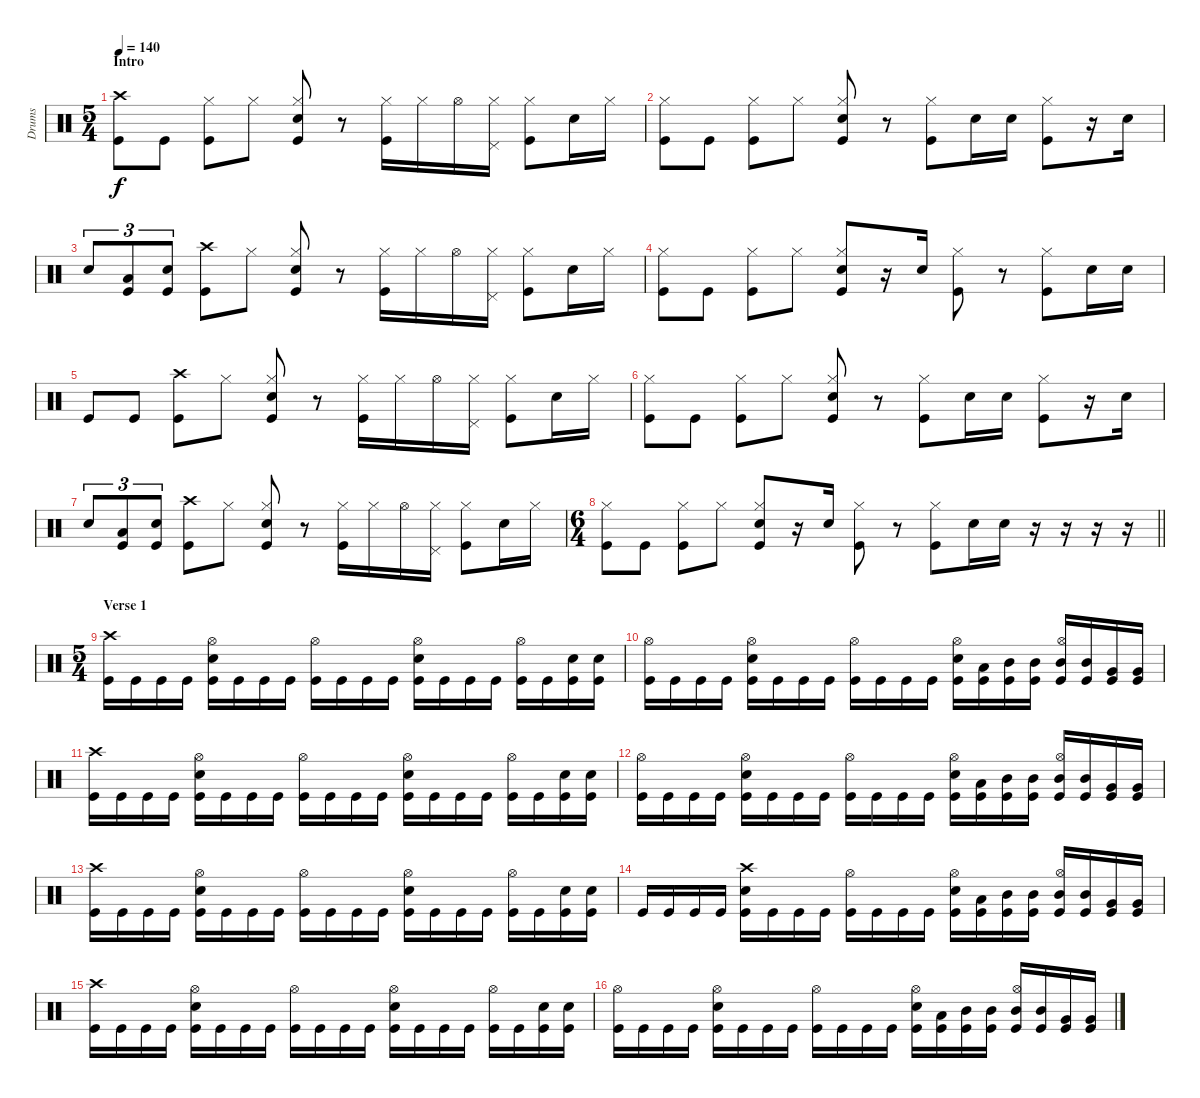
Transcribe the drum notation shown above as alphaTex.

\track ("Drums" "Drums") {instrument percussion}
\staff {score}
\articulation defaults
\ts (5 4)
\section ("" "Intro")
\tempo 140
\clef neutral
\ks c
("Crash high (hit)" "Kick (hit)").8{dy f} "Kick (hit)".8 ("Hi-Hat (closed)" "Kick (hit)").8 "Hi-Hat (closed)".8 ("Hi-Hat (closed)" "Snare (hit) 2" "Kick (hit)").8 r.8 ("Hi-Hat (closed)" "Kick (hit)").16 "Hi-Hat (closed)".16 "Hi-Hat (open)".16 ("Hi-Hat (closed)" "Pedal Hi-Hat (hit)").16 ("Hi-Hat (closed)" "Kick (hit)").8 "Snare (hit) 2".16 "Hi-Hat (closed)".16 |
("Hi-Hat (closed)" "Kick (hit)").8 "Kick (hit)".8 ("Hi-Hat (closed)" "Kick (hit)").8 "Hi-Hat (closed)".8 ("Hi-Hat (closed)" "Snare (hit) 2" "Kick (hit)").8 r.8 ("Hi-Hat (closed)" "Kick (hit)").8 "Snare (hit) 2".16 "Snare (hit) 2".16 ("Hi-Hat (closed)" "Kick (hit)").8 r.16 "Snare (hit) 2".16 |
"Snare (hit) 2".8{tu (3 2)} ("Low Tom (hit)" "Kick (hit)").8{tu (3 2)} ("Snare (hit) 2" "Kick (hit)").8{tu (3 2)} ("Crash high (hit)" "Kick (hit)").8 "Hi-Hat (closed)".8 ("Hi-Hat (closed)" "Snare (hit) 2" "Kick (hit)").8 r.8 ("Hi-Hat (closed)" "Kick (hit)").16 "Hi-Hat (closed)".16 "Hi-Hat (open)".16 ("Hi-Hat (closed)" "Pedal Hi-Hat (hit)").16 ("Hi-Hat (closed)" "Kick (hit)").8 "Snare (hit) 2".16 "Hi-Hat (closed)".16 |
("Hi-Hat (closed)" "Kick (hit)").8 "Kick (hit)".8 ("Hi-Hat (closed)" "Kick (hit)").8 "Hi-Hat (closed)".8 ("Hi-Hat (closed)" "Snare (hit) 2" "Kick (hit)").8 r.16 "Snare (hit) 2".16 ("Hi-Hat (closed)" "Kick (hit)").8 r.8 ("Hi-Hat (closed)" "Kick (hit)").8 "Snare (hit) 2".16 "Snare (hit) 2".16 |
"Kick (hit)".8 "Kick (hit)".8 ("Crash high (hit)" "Kick (hit)").8 "Hi-Hat (closed)".8 ("Hi-Hat (closed)" "Snare (hit) 2" "Kick (hit)").8 r.8 ("Hi-Hat (closed)" "Kick (hit)").16 "Hi-Hat (closed)".16 "Hi-Hat (open)".16 ("Hi-Hat (closed)" "Pedal Hi-Hat (hit)").16 ("Hi-Hat (closed)" "Kick (hit)").8 "Snare (hit) 2".16 "Hi-Hat (closed)".16 |
("Hi-Hat (closed)" "Kick (hit)").8 "Kick (hit)".8 ("Hi-Hat (closed)" "Kick (hit)").8 "Hi-Hat (closed)".8 ("Hi-Hat (closed)" "Snare (hit) 2" "Kick (hit)").8 r.8 ("Hi-Hat (closed)" "Kick (hit)").8 "Snare (hit) 2".16 "Snare (hit) 2".16 ("Hi-Hat (closed)" "Kick (hit)").8 r.16 "Snare (hit) 2".16 |
"Snare (hit) 2".8{tu (3 2)} ("Low Tom (hit)" "Kick (hit)").8{tu (3 2)} ("Snare (hit) 2" "Kick (hit)").8{tu (3 2)} ("Crash high (hit)" "Kick (hit)").8 "Hi-Hat (closed)".8 ("Hi-Hat (closed)" "Snare (hit) 2" "Kick (hit)").8 r.8 ("Hi-Hat (closed)" "Kick (hit)").16 "Hi-Hat (closed)".16 "Hi-Hat (open)".16 ("Hi-Hat (closed)" "Pedal Hi-Hat (hit)").16 ("Hi-Hat (closed)" "Kick (hit)").8 "Snare (hit) 2".16 "Hi-Hat (closed)".16 |
\ts (6 4)
\barLineRight lightlight
("Hi-Hat (closed)" "Kick (hit)").8 "Kick (hit)".8 ("Hi-Hat (closed)" "Kick (hit)").8 "Hi-Hat (closed)".8 ("Hi-Hat (closed)" "Snare (hit) 2" "Kick (hit)").8 r.16 "Snare (hit) 2".16 ("Hi-Hat (closed)" "Kick (hit)").8 r.8 ("Hi-Hat (closed)" "Kick (hit)").8 "Snare (hit) 2".16 "Snare (hit) 2".16 r.16 r.16 r.16 r.16 |
\ts (5 4)
\section ("" "Verse 1")
("Crash high (hit)" "Kick (hit)").16 "Kick (hit)".16 "Kick (hit)".16 "Kick (hit)".16 ("Hi-Hat (open)" "Snare (hit) 2" "Kick (hit)").16 "Kick (hit)".16 "Kick (hit)".16 "Kick (hit)".16 ("Hi-Hat (open)" "Kick (hit)").16 "Kick (hit)".16 "Kick (hit)".16 "Kick (hit)".16 ("Hi-Hat (open)" "Snare (hit) 2" "Kick (hit)").16 "Kick (hit)".16 "Kick (hit)".16 "Kick (hit)".16 ("Hi-Hat (open)" "Kick (hit)").16 "Kick (hit)".16 ("Snare (hit) 2" "Kick (hit)").16 ("Snare (hit) 2" "Kick (hit)").16 |
("Hi-Hat (open)" "Kick (hit)").16 "Kick (hit)".16 "Kick (hit)".16 "Kick (hit)".16 ("Hi-Hat (open)" "Snare (hit) 2" "Kick (hit)").16 "Kick (hit)".16 "Kick (hit)".16 "Kick (hit)".16 ("Hi-Hat (open)" "Kick (hit)").16 "Kick (hit)".16 "Kick (hit)".16 "Kick (hit)".16 ("Hi-Hat (open)" "Snare (hit) 2" "Kick (hit)").16 ("Low Tom (hit)" "Kick (hit)").16 ("Mid Tom (hit)" "Kick (hit)").16 ("Mid Tom (hit)" "Kick (hit)").16 ("Hi-Hat (open)" "Mid Tom (hit)" "Kick (hit)").16 ("Mid Tom (hit)" "Kick (hit)").16 ("Very Low Tom (hit)" "Kick (hit)").16 ("Very Low Tom (hit)" "Kick (hit)").16 |
("Crash high (hit)" "Kick (hit)").16 "Kick (hit)".16 "Kick (hit)".16 "Kick (hit)".16 ("Hi-Hat (open)" "Snare (hit) 2" "Kick (hit)").16 "Kick (hit)".16 "Kick (hit)".16 "Kick (hit)".16 ("Hi-Hat (open)" "Kick (hit)").16 "Kick (hit)".16 "Kick (hit)".16 "Kick (hit)".16 ("Hi-Hat (open)" "Snare (hit) 2" "Kick (hit)").16 "Kick (hit)".16 "Kick (hit)".16 "Kick (hit)".16 ("Hi-Hat (open)" "Kick (hit)").16 "Kick (hit)".16 ("Snare (hit) 2" "Kick (hit)").16 ("Snare (hit) 2" "Kick (hit)").16 |
("Hi-Hat (open)" "Kick (hit)").16 "Kick (hit)".16 "Kick (hit)".16 "Kick (hit)".16 ("Hi-Hat (open)" "Snare (hit) 2" "Kick (hit)").16 "Kick (hit)".16 "Kick (hit)".16 "Kick (hit)".16 ("Hi-Hat (open)" "Kick (hit)").16 "Kick (hit)".16 "Kick (hit)".16 "Kick (hit)".16 ("Hi-Hat (open)" "Snare (hit) 2" "Kick (hit)").16 ("Low Tom (hit)" "Kick (hit)").16 ("Mid Tom (hit)" "Kick (hit)").16 ("Mid Tom (hit)" "Kick (hit)").16 ("Hi-Hat (open)" "Mid Tom (hit)" "Kick (hit)").16 ("Mid Tom (hit)" "Kick (hit)").16 ("Very Low Tom (hit)" "Kick (hit)").16 ("Very Low Tom (hit)" "Kick (hit)").16 |
("Crash high (hit)" "Kick (hit)").16 "Kick (hit)".16 "Kick (hit)".16 "Kick (hit)".16 ("Hi-Hat (open)" "Snare (hit) 2" "Kick (hit)").16 "Kick (hit)".16 "Kick (hit)".16 "Kick (hit)".16 ("Hi-Hat (open)" "Kick (hit)").16 "Kick (hit)".16 "Kick (hit)".16 "Kick (hit)".16 ("Hi-Hat (open)" "Snare (hit) 2" "Kick (hit)").16 "Kick (hit)".16 "Kick (hit)".16 "Kick (hit)".16 ("Hi-Hat (open)" "Kick (hit)").16 "Kick (hit)".16 ("Snare (hit) 2" "Kick (hit)").16 ("Snare (hit) 2" "Kick (hit)").16 |
"Kick (hit)".16 "Kick (hit)".16 "Kick (hit)".16 "Kick (hit)".16 ("Crash high (hit)" "Snare (hit) 2" "Kick (hit)").16 "Kick (hit)".16 "Kick (hit)".16 "Kick (hit)".16 ("Hi-Hat (open)" "Kick (hit)").16 "Kick (hit)".16 "Kick (hit)".16 "Kick (hit)".16 ("Hi-Hat (open)" "Snare (hit) 2" "Kick (hit)").16 ("Low Tom (hit)" "Kick (hit)").16 ("Mid Tom (hit)" "Kick (hit)").16 ("Mid Tom (hit)" "Kick (hit)").16 ("Hi-Hat (open)" "Mid Tom (hit)" "Kick (hit)").16 ("Mid Tom (hit)" "Kick (hit)").16 ("Very Low Tom (hit)" "Kick (hit)").16 ("Very Low Tom (hit)" "Kick (hit)").16 |
("Crash high (hit)" "Kick (hit)").16 "Kick (hit)".16 "Kick (hit)".16 "Kick (hit)".16 ("Hi-Hat (open)" "Snare (hit) 2" "Kick (hit)").16 "Kick (hit)".16 "Kick (hit)".16 "Kick (hit)".16 ("Hi-Hat (open)" "Kick (hit)").16 "Kick (hit)".16 "Kick (hit)".16 "Kick (hit)".16 ("Hi-Hat (open)" "Snare (hit) 2" "Kick (hit)").16 "Kick (hit)".16 "Kick (hit)".16 "Kick (hit)".16 ("Hi-Hat (open)" "Kick (hit)").16 "Kick (hit)".16 ("Snare (hit) 2" "Kick (hit)").16 ("Snare (hit) 2" "Kick (hit)").16 |
("Hi-Hat (open)" "Kick (hit)").16 "Kick (hit)".16 "Kick (hit)".16 "Kick (hit)".16 ("Hi-Hat (open)" "Snare (hit) 2" "Kick (hit)").16 "Kick (hit)".16 "Kick (hit)".16 "Kick (hit)".16 ("Hi-Hat (open)" "Kick (hit)").16 "Kick (hit)".16 "Kick (hit)".16 "Kick (hit)".16 ("Hi-Hat (open)" "Snare (hit) 2" "Kick (hit)").16 ("Low Tom (hit)" "Kick (hit)").16 ("Mid Tom (hit)" "Kick (hit)").16 ("Mid Tom (hit)" "Kick (hit)").16 ("Hi-Hat (open)" "Mid Tom (hit)" "Kick (hit)").16 ("Mid Tom (hit)" "Kick (hit)").16 ("Very Low Tom (hit)" "Kick (hit)").16 ("Very Low Tom (hit)" "Kick (hit)").16
